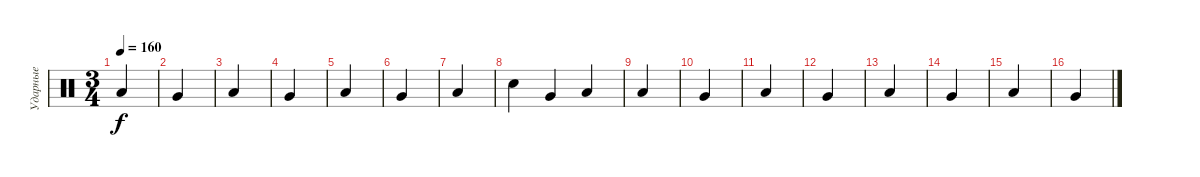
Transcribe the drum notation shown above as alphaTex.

\track ("Ударные" "Ударные") {instrument percussion}
\staff {score}
\articulation defaults
\ts (3 4)
\tempo 160
\clef neutral
\ks c "Low Floor Tom (hit)".4{dy f}
|
"Very Low Tom (hit)".4 |
"Low Floor Tom (hit)".4 |
"Very Low Tom (hit)".4 |
"Low Floor Tom (hit)".4 |
"Very Low Tom (hit)".4 |
"Low Floor Tom (hit)".4 |
"Snare (hit) 2".4 "Very Low Tom (hit)".4 "Low Floor Tom (hit)".4 |
"Low Floor Tom (hit)".4 |
"Very Low Tom (hit)".4 |
"Low Floor Tom (hit)".4 |
"Very Low Tom (hit)".4 |
"Low Floor Tom (hit)".4 |
"Very Low Tom (hit)".4 |
"Low Floor Tom (hit)".4 |
"Very Low Tom (hit)".4
